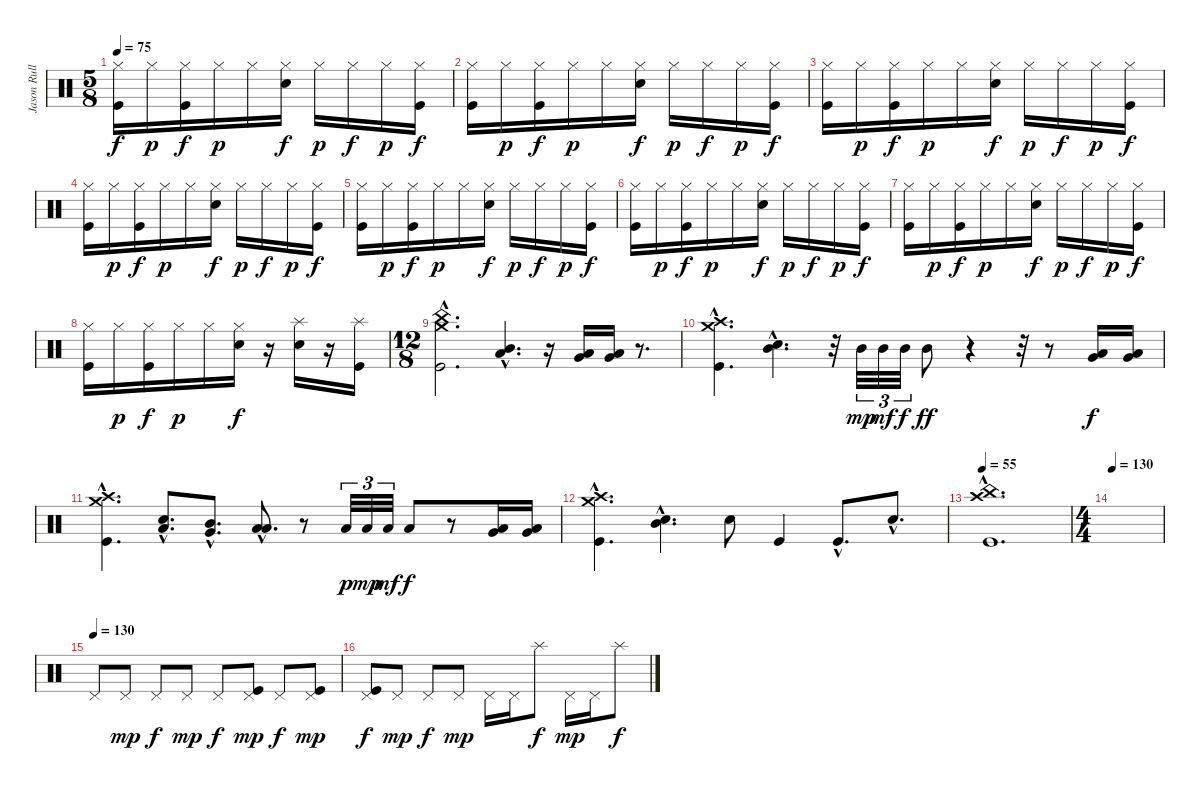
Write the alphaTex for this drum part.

\track ("Jason Rullo - Batterie" "Jason Rull") {instrument percussion}
\staff {score}
\articulation defaults
\ts (5 8)
\tempo 75
\clef neutral
\ks c
("Hi-Hat (closed)" "Kick (hit)").16{dy f} "Hi-Hat (closed)".16{dy p} ("Hi-Hat (closed)" "Kick (hit)").16{dy f} "Hi-Hat (closed)".16{dy p} "Hi-Hat (closed)".16 ("Hi-Hat (closed)" "Snare (hit) 2").16{dy f} "Hi-Hat (closed)".16{dy p} "Hi-Hat (closed)".16{dy f} "Hi-Hat (closed)".16{dy p} ("Hi-Hat (closed)" "Kick (hit)").16{dy f} |
("Hi-Hat (closed)" "Kick (hit)").16 "Hi-Hat (closed)".16{dy p} ("Hi-Hat (closed)" "Kick (hit)").16{dy f} "Hi-Hat (closed)".16{dy p} "Hi-Hat (closed)".16 ("Hi-Hat (closed)" "Snare (hit) 2").16{dy f} "Hi-Hat (closed)".16{dy p} "Hi-Hat (closed)".16{dy f} "Hi-Hat (closed)".16{dy p} ("Hi-Hat (closed)" "Kick (hit)").16{dy f} |
("Hi-Hat (closed)" "Kick (hit)").16 "Hi-Hat (closed)".16{dy p} ("Hi-Hat (closed)" "Kick (hit)").16{dy f} "Hi-Hat (closed)".16{dy p} "Hi-Hat (closed)".16 ("Hi-Hat (closed)" "Snare (hit) 2").16{dy f} "Hi-Hat (closed)".16{dy p} "Hi-Hat (closed)".16{dy f} "Hi-Hat (closed)".16{dy p} ("Hi-Hat (closed)" "Kick (hit)").16{dy f} |
("Hi-Hat (closed)" "Kick (hit)").16 "Hi-Hat (closed)".16{dy p} ("Hi-Hat (closed)" "Kick (hit)").16{dy f} "Hi-Hat (closed)".16{dy p} "Hi-Hat (closed)".16 ("Hi-Hat (closed)" "Snare (hit) 2").16{dy f} "Hi-Hat (closed)".16{dy p} "Hi-Hat (closed)".16{dy f} "Hi-Hat (closed)".16{dy p} ("Hi-Hat (closed)" "Kick (hit)").16{dy f} |
("Hi-Hat (closed)" "Kick (hit)").16 "Hi-Hat (closed)".16{dy p} ("Hi-Hat (closed)" "Kick (hit)").16{dy f} "Hi-Hat (closed)".16{dy p} "Hi-Hat (closed)".16 ("Hi-Hat (closed)" "Snare (hit) 2").16{dy f} "Hi-Hat (closed)".16{dy p} "Hi-Hat (closed)".16{dy f} "Hi-Hat (closed)".16{dy p} ("Hi-Hat (closed)" "Kick (hit)").16{dy f} |
("Hi-Hat (closed)" "Kick (hit)").16 "Hi-Hat (closed)".16{dy p} ("Hi-Hat (closed)" "Kick (hit)").16{dy f} "Hi-Hat (closed)".16{dy p} "Hi-Hat (closed)".16 ("Hi-Hat (closed)" "Snare (hit) 2").16{dy f} "Hi-Hat (closed)".16{dy p} "Hi-Hat (closed)".16{dy f} "Hi-Hat (closed)".16{dy p} ("Hi-Hat (closed)" "Kick (hit)").16{dy f} |
("Hi-Hat (closed)" "Kick (hit)").16 "Hi-Hat (closed)".16{dy p} ("Hi-Hat (closed)" "Kick (hit)").16{dy f} "Hi-Hat (closed)".16{dy p} "Hi-Hat (closed)".16 ("Hi-Hat (closed)" "Snare (hit) 2").16{dy f} "Hi-Hat (closed)".16{dy p} "Hi-Hat (closed)".16{dy f} "Hi-Hat (closed)".16{dy p} ("Hi-Hat (closed)" "Kick (hit)").16{dy f} |
("Hi-Hat (closed)" "Kick (hit)").16 "Hi-Hat (closed)".16{dy p} ("Hi-Hat (closed)" "Kick (hit)").16{dy f} "Hi-Hat (closed)".16{dy p} "Hi-Hat (closed)".16 ("Hi-Hat (closed)" "Snare (hit) 2").16{dy f} r.16 ("Splash (hit)" "Snare (hit) 2").16 r.16 ("Splash (hit)" "Kick (hit)").16 |
\ts (12 8)
("Crash medium (hit)"{hac} "China (hit)"{hac} "Kick (hit)"{hac}).2{d volume 12} ("Low Tom (hit)"{hac} "Mid Tom (hit)"{hac}).4{d} r.16 ("Very Low Tom (hit)" "Low Tom (hit)").16 ("Very Low Tom (hit)" "Low Tom (hit)").16 r.8{d} |
("Crash medium (hit)"{hac} "Crash high (hit)"{hac} "Kick (hit)"{hac}).4{d} ("Mid Tom (hit)"{hac} "Snare (hit) 2"{hac}).4{d} r.32 "Mid Tom (hit)".32{tu (3 2) dy mp} "Mid Tom (hit)".32{tu (3 2) dy mf} "Mid Tom (hit)".32{tu (3 2) dy f} "Mid Tom (hit)".8{dy ff} r.4 r.32 r.8 ("Very Low Tom (hit)" "Low Tom (hit)").16{dy f} ("Very Low Tom (hit)" "Low Tom (hit)").16 |
("Crash medium (hit)"{hac} "Crash high (hit)"{hac} "Kick (hit)"{hac}).4{d} ("Low Tom (hit)"{hac} "Snare (hit) 2"{hac}).8{d} ("Very Low Tom (hit)"{hac} "Mid Tom (hit)"{hac}).8{d} ("Low Floor Tom (hit)"{hac} "Low Tom (hit)"{hac}).8{d} r.8 "Low Tom (hit)".32{tu (3 2) dy p} "Low Tom (hit)".32{tu (3 2) dy mp} "Low Tom (hit)".32{tu (3 2) dy mf} "Low Tom (hit)".8{dy f} r.8 ("Very Low Tom (hit)" "Low Tom (hit)").16 ("Very Low Tom (hit)" "Low Tom (hit)").16 |
("Crash medium (hit)"{hac} "Crash high (hit)"{hac} "Kick (hit)"{hac}).4{d} ("Mid Tom (hit)"{hac} "Snare (hit) 2"{hac}).4{d} "Snare (hit) 2".8 "Kick (hit)".4 "Kick (hit)"{hac}.8{d} "Snare (hit) 2"{hac}.8{d} |
\tempo 55
("Crash high (hit)"{hac} "China (hit)"{hac} "Kick (hit)"{hac}).1{d} |
\ts (4 4)
\tempo 130
|
\tempo (130)
"Pedal Hi-Hat (hit)".8 "Pedal Hi-Hat (hit)".8{dy mp} "Pedal Hi-Hat (hit)".8{dy f} "Pedal Hi-Hat (hit)".8{dy mp} "Pedal Hi-Hat (hit)".8{dy f} ("Pedal Hi-Hat (hit)" "Kick (hit)").8{dy mp} "Pedal Hi-Hat (hit)".8{dy f} ("Pedal Hi-Hat (hit)" "Kick (hit)").8{dy mp} |
("Pedal Hi-Hat (hit)" "Kick (hit)").8{dy f} "Pedal Hi-Hat (hit)".8{dy mp} "Pedal Hi-Hat (hit)".8{dy f} "Pedal Hi-Hat (hit)".8{dy mp} "Pedal Hi-Hat (hit)".16 "Pedal Hi-Hat (hit)".16 "Splash (hit)".8{dy f} "Pedal Hi-Hat (hit)".16{dy mp} "Pedal Hi-Hat (hit)".16 "Splash (hit)".8{dy f}
